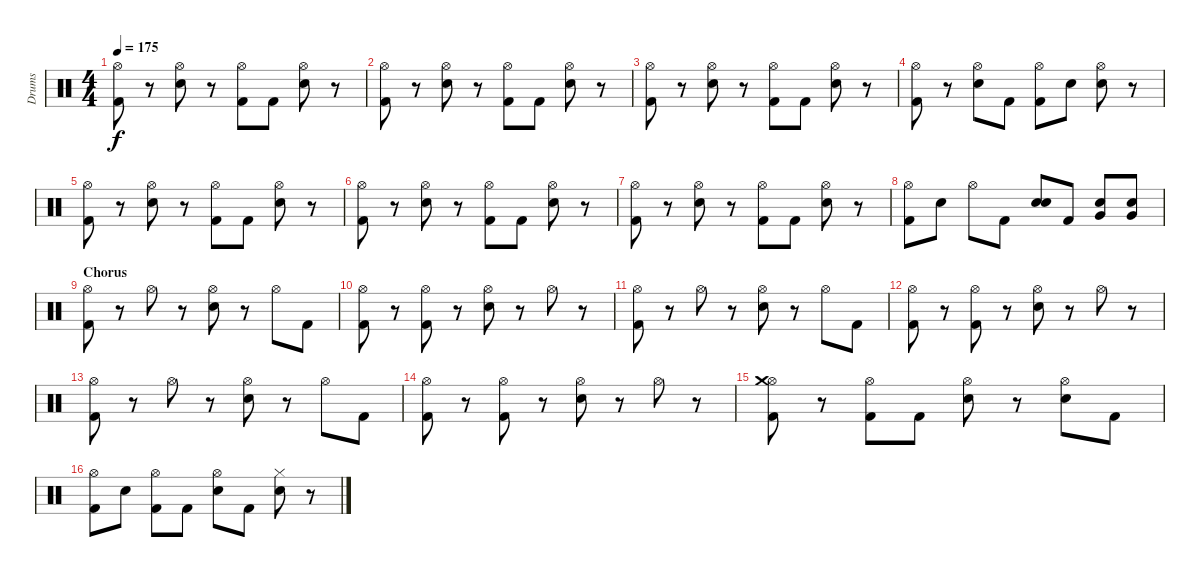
\track ("Drums" "Drums") {instrument percussion}
\staff {score}
\articulation defaults
\ts (4 4)
\tempo 175
\clef neutral
\ks c
("Kick (hit) 2" "Hi-Hat (open)").8{dy f} r.8 ("Electric Snare (hit)" "Hi-Hat (open)").8 r.8 ("Kick (hit) 2" "Hi-Hat (open)").8 "Kick (hit) 2".8 ("Electric Snare (hit)" "Hi-Hat (open)").8 r.8 |
("Kick (hit) 2" "Hi-Hat (open)").8 r.8 ("Electric Snare (hit)" "Hi-Hat (open)").8 r.8 ("Kick (hit) 2" "Hi-Hat (open)").8 "Kick (hit) 2".8 ("Electric Snare (hit)" "Hi-Hat (open)").8 r.8 |
("Kick (hit) 2" "Hi-Hat (open)").8 r.8 ("Electric Snare (hit)" "Hi-Hat (open)").8 r.8 ("Kick (hit) 2" "Hi-Hat (open)").8 "Kick (hit) 2".8 ("Electric Snare (hit)" "Hi-Hat (open)").8 r.8 |
("Kick (hit) 2" "Hi-Hat (open)").8 r.8 ("Electric Snare (hit)" "Hi-Hat (open)").8 "Kick (hit) 2".8 ("Kick (hit) 2" "Hi-Hat (open)").8 "Electric Snare (hit)".8 ("Electric Snare (hit)" "Hi-Hat (open)").8 r.8 |
("Kick (hit) 2" "Hi-Hat (open)").8 r.8 ("Electric Snare (hit)" "Hi-Hat (open)").8 r.8 ("Kick (hit) 2" "Hi-Hat (open)").8 "Kick (hit) 2".8 ("Electric Snare (hit)" "Hi-Hat (open)").8 r.8 |
("Kick (hit) 2" "Hi-Hat (open)").8 r.8 ("Electric Snare (hit)" "Hi-Hat (open)").8 r.8 ("Kick (hit) 2" "Hi-Hat (open)").8 "Kick (hit) 2".8 ("Electric Snare (hit)" "Hi-Hat (open)").8 r.8 |
("Kick (hit) 2" "Hi-Hat (open)").8 r.8 ("Electric Snare (hit)" "Hi-Hat (open)").8 r.8 ("Kick (hit) 2" "Hi-Hat (open)").8 "Kick (hit) 2".8 ("Electric Snare (hit)" "Hi-Hat (open)").8 r.8 |
("Kick (hit) 2" "Hi-Hat (open)").8 "Electric Snare (hit)".8 "Hi-Hat (open)".8 "Kick (hit) 2".8 ("Electric Snare (hit)" "Electric Snare (hit)").8 "Kick (hit) 2".8 ("Electric Snare (hit)" "Very Low Tom (hit)").8 ("Electric Snare (hit)" "Very Low Tom (hit)").8 |
\section ("" "Chorus")
("Kick (hit) 2" "Hi-Hat (open)").8 r.8 "Hi-Hat (open)".8 r.8 ("Electric Snare (hit)" "Hi-Hat (open)").8 r.8 "Hi-Hat (open)".8 "Kick (hit) 2".8 |
("Kick (hit) 2" "Hi-Hat (open)").8 r.8 ("Kick (hit) 2" "Hi-Hat (open)").8 r.8 ("Electric Snare (hit)" "Hi-Hat (open)").8 r.8 "Hi-Hat (open)".8 r.8 |
("Kick (hit) 2" "Hi-Hat (open)").8 r.8 "Hi-Hat (open)".8 r.8 ("Electric Snare (hit)" "Hi-Hat (open)").8 r.8 "Hi-Hat (open)".8 "Kick (hit) 2".8 |
("Kick (hit) 2" "Hi-Hat (open)").8 r.8 ("Kick (hit) 2" "Hi-Hat (open)").8 r.8 ("Electric Snare (hit)" "Hi-Hat (open)").8 r.8 "Hi-Hat (open)".8 r.8 |
("Kick (hit) 2" "Hi-Hat (open)").8 r.8 "Hi-Hat (open)".8 r.8 ("Electric Snare (hit)" "Hi-Hat (open)").8 r.8 "Hi-Hat (open)".8 "Kick (hit) 2".8 |
("Kick (hit) 2" "Hi-Hat (open)").8 r.8 ("Kick (hit) 2" "Hi-Hat (open)").8 r.8 ("Electric Snare (hit)" "Hi-Hat (open)").8 r.8 "Hi-Hat (open)".8 r.8 |
("Kick (hit) 2" "Hi-Hat (open)" "Crash medium (hit)").8 r.8 ("Kick (hit) 2" "Hi-Hat (open)").8 "Kick (hit) 2".8 ("Electric Snare (hit)" "Hi-Hat (open)").8 r.8 ("Electric Snare (hit)" "Hi-Hat (open)").8 "Kick (hit) 2".8 |
("Kick (hit) 2" "Hi-Hat (open)").8 "Electric Snare (hit)".8 ("Kick (hit) 2" "Hi-Hat (open)").8 "Kick (hit) 2".8 ("Electric Snare (hit)" "Hi-Hat (open)").8 "Kick (hit) 2".8 ("Electric Snare (hit)" "Hi-Hat (closed)").8 r.8
